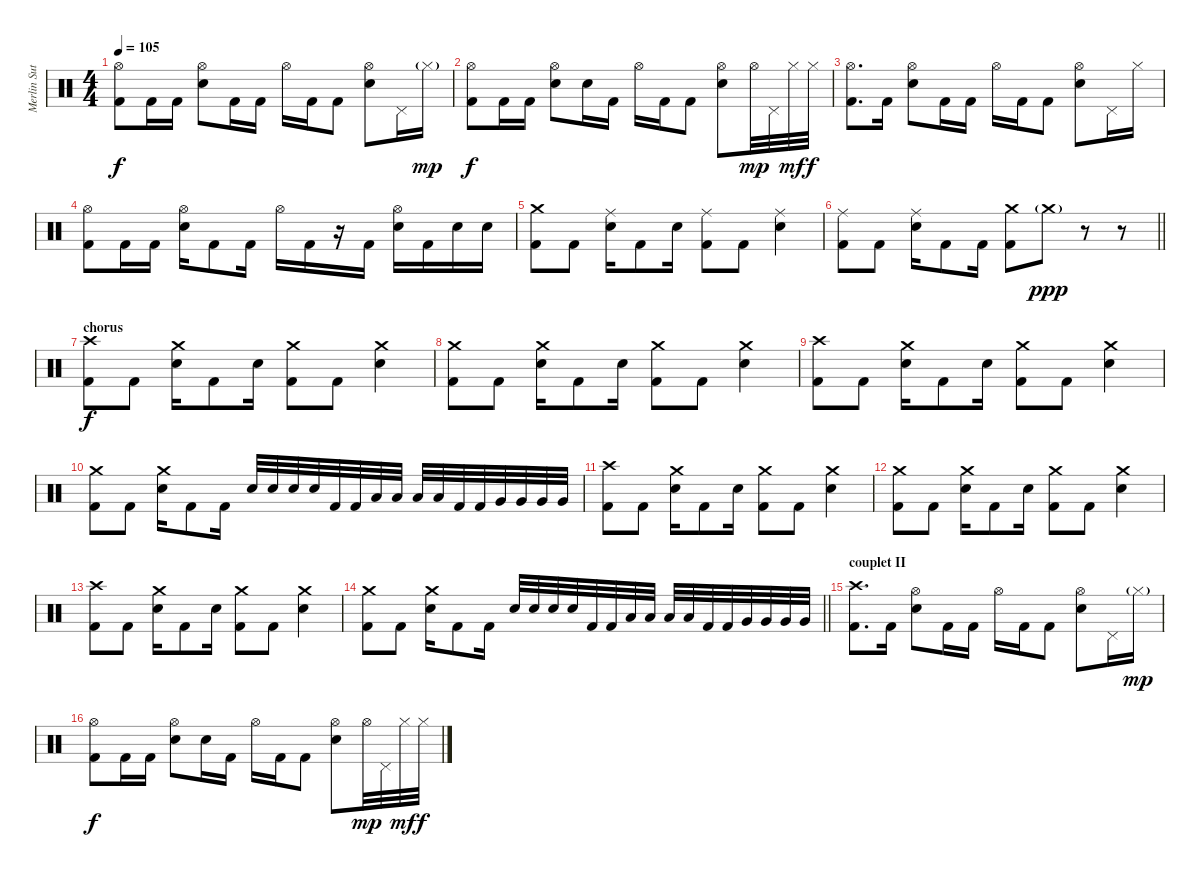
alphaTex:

\track ("Merlin Sutter" "Merlin Sut") {instrument percussion}
\staff {score}
\articulation defaults
\ts (4 4)
\tempo 105
\clef neutral
\ks c
("Hi-Hat (open)" "Kick (hit) 2").8{dy f} "Kick (hit) 2".16 "Kick (hit) 2".16 ("Hi-Hat (open)" "Electric Snare (hit)").8 "Kick (hit) 2".16 "Kick (hit) 2".16 "Hi-Hat (open)".16 "Kick (hit) 2".16 "Kick (hit) 2".8 ("Hi-Hat (open)" "Electric Snare (hit)").8 "Pedal Hi-Hat (hit)".16 "Hi-Hat (closed)"{g}.16{dy mp} |
("Hi-Hat (open)" "Kick (hit) 2").8{dy f} "Kick (hit) 2".16 "Kick (hit) 2".16 ("Hi-Hat (open)" "Electric Snare (hit)").8 "Electric Snare (hit)".16 "Kick (hit) 2".16 "Hi-Hat (open)".16 "Kick (hit) 2".16 "Kick (hit) 2".8 ("Hi-Hat (open)" "Electric Snare (hit)").8 "Hi-Hat (open)".32{dy mp} "Pedal Hi-Hat (hit)".32 "Hi-Hat (closed)".32{dy mf} "Hi-Hat (closed)".32{dy f} |
("Hi-Hat (open)" "Kick (hit) 2").8{d} "Kick (hit) 2".16 ("Hi-Hat (open)" "Electric Snare (hit)").8 "Kick (hit) 2".16 "Kick (hit) 2".16 "Hi-Hat (open)".16 "Kick (hit) 2".16 "Kick (hit) 2".8 ("Hi-Hat (open)" "Electric Snare (hit)").8 "Pedal Hi-Hat (hit)".16 "Hi-Hat (closed)".16 |
("Hi-Hat (open)" "Kick (hit) 2").8 "Kick (hit) 2".16 "Kick (hit) 2".16 ("Hi-Hat (open)" "Electric Snare (hit)").16 "Kick (hit) 2".8 "Kick (hit) 2".16 "Hi-Hat (open)".16 "Kick (hit) 2".16 r.16 "Kick (hit) 2".16 ("Hi-Hat (open)" "Electric Snare (hit)").16 "Kick (hit) 2".16 "Electric Snare (hit)".16 "Electric Snare (hit)".16 |
("Crash medium (hit)" "Kick (hit) 2").8 "Kick (hit) 2".8 ("Ride (middle)" "Electric Snare (hit)").16 "Kick (hit) 2".8 "Electric Snare (hit)".16 ("Ride (middle)" "Kick (hit) 2").8 "Kick (hit) 2".8 ("Ride (middle)" "Electric Snare (hit)").4 |
\barLineRight lightlight
("Ride (middle)" "Kick (hit) 2").8 "Kick (hit) 2".8 ("Ride (middle)" "Electric Snare (hit)").16 "Kick (hit) 2".8 "Kick (hit) 2".16 ("Crash medium (hit)" "Kick (hit) 2").8 "Crash medium (hit)"{g}.8{dy ppp} r.8 r.8 |
\section ("" "chorus")
("Crash high (hit)" "Kick (hit) 2").8{dy f} "Kick (hit) 2".8 ("Crash medium (hit)" "Electric Snare (hit)").16 "Kick (hit) 2".8 "Electric Snare (hit)".16 ("Crash medium (hit)" "Kick (hit) 2").8 "Kick (hit) 2".8 ("Crash medium (hit)" "Electric Snare (hit)").4 |
("Crash medium (hit)" "Kick (hit) 2").8 "Kick (hit) 2".8 ("Crash medium (hit)" "Electric Snare (hit)").16 "Kick (hit) 2".8 "Electric Snare (hit)".16 ("Crash medium (hit)" "Kick (hit) 2").8 "Kick (hit) 2".8 ("Crash medium (hit)" "Electric Snare (hit)").4 |
("Crash high (hit)" "Kick (hit) 2").8 "Kick (hit) 2".8 ("Crash medium (hit)" "Electric Snare (hit)").16 "Kick (hit) 2".8 "Electric Snare (hit)".16 ("Crash medium (hit)" "Kick (hit) 2").8 "Kick (hit) 2".8 ("Crash medium (hit)" "Electric Snare (hit)").4 |
("Crash medium (hit)" "Kick (hit) 2").8 "Kick (hit) 2".8 ("Crash medium (hit)" "Electric Snare (hit)").16 "Kick (hit) 2".8 "Kick (hit) 2".16 "Electric Snare (hit)".32 "Electric Snare (hit)".32 "Electric Snare (hit)".32 "Electric Snare (hit)".32 "Kick (hit) 2".32 "Kick (hit) 2".32 "Low Tom (hit)".32 "Low Tom (hit)".32 "Low Tom (hit)".32 "Low Tom (hit)".32 "Kick (hit) 2".32 "Kick (hit) 2".32 "Very Low Tom (hit)".32 "Very Low Tom (hit)".32 "Very Low Tom (hit)".32 "Very Low Tom (hit)".32 |
("Crash high (hit)" "Kick (hit) 2").8 "Kick (hit) 2".8 ("Crash medium (hit)" "Electric Snare (hit)").16 "Kick (hit) 2".8 "Electric Snare (hit)".16 ("Crash medium (hit)" "Kick (hit) 2").8 "Kick (hit) 2".8 ("Crash medium (hit)" "Electric Snare (hit)").4 |
("Crash medium (hit)" "Kick (hit) 2").8 "Kick (hit) 2".8 ("Crash medium (hit)" "Electric Snare (hit)").16 "Kick (hit) 2".8 "Electric Snare (hit)".16 ("Crash medium (hit)" "Kick (hit) 2").8 "Kick (hit) 2".8 ("Crash medium (hit)" "Electric Snare (hit)").4 |
("Crash high (hit)" "Kick (hit) 2").8 "Kick (hit) 2".8 ("Crash medium (hit)" "Electric Snare (hit)").16 "Kick (hit) 2".8 "Electric Snare (hit)".16 ("Crash medium (hit)" "Kick (hit) 2").8 "Kick (hit) 2".8 ("Crash medium (hit)" "Electric Snare (hit)").4 |
\barLineRight lightlight
("Crash medium (hit)" "Kick (hit) 2").8 "Kick (hit) 2".8 ("Crash medium (hit)" "Electric Snare (hit)").16 "Kick (hit) 2".8 "Kick (hit) 2".16 "Electric Snare (hit)".32 "Electric Snare (hit)".32 "Electric Snare (hit)".32 "Electric Snare (hit)".32 "Kick (hit) 2".32 "Kick (hit) 2".32 "Low Tom (hit)".32 "Low Tom (hit)".32 "Low Tom (hit)".32 "Low Tom (hit)".32 "Kick (hit) 2".32 "Kick (hit) 2".32 "Very Low Tom (hit)".32 "Very Low Tom (hit)".32 "Very Low Tom (hit)".32 "Very Low Tom (hit)".32 |
\section ("" "couplet II")
("Crash high (hit)" "Kick (hit) 2").8{d} "Kick (hit) 2".16 ("Hi-Hat (open)" "Electric Snare (hit)").8 "Kick (hit) 2".16 "Kick (hit) 2".16 "Hi-Hat (open)".16 "Kick (hit) 2".16 "Kick (hit) 2".8 ("Hi-Hat (open)" "Electric Snare (hit)").8 "Pedal Hi-Hat (hit)".16 "Hi-Hat (closed)"{g}.16{dy mp} |
("Hi-Hat (open)" "Kick (hit) 2").8{dy f} "Kick (hit) 2".16 "Kick (hit) 2".16 ("Hi-Hat (open)" "Electric Snare (hit)").8 "Electric Snare (hit)".16 "Kick (hit) 2".16 "Hi-Hat (open)".16 "Kick (hit) 2".16 "Kick (hit) 2".8 ("Hi-Hat (open)" "Electric Snare (hit)").8 "Hi-Hat (open)".32{dy mp} "Pedal Hi-Hat (hit)".32 "Hi-Hat (closed)".32{dy mf} "Hi-Hat (closed)".32{dy f}
